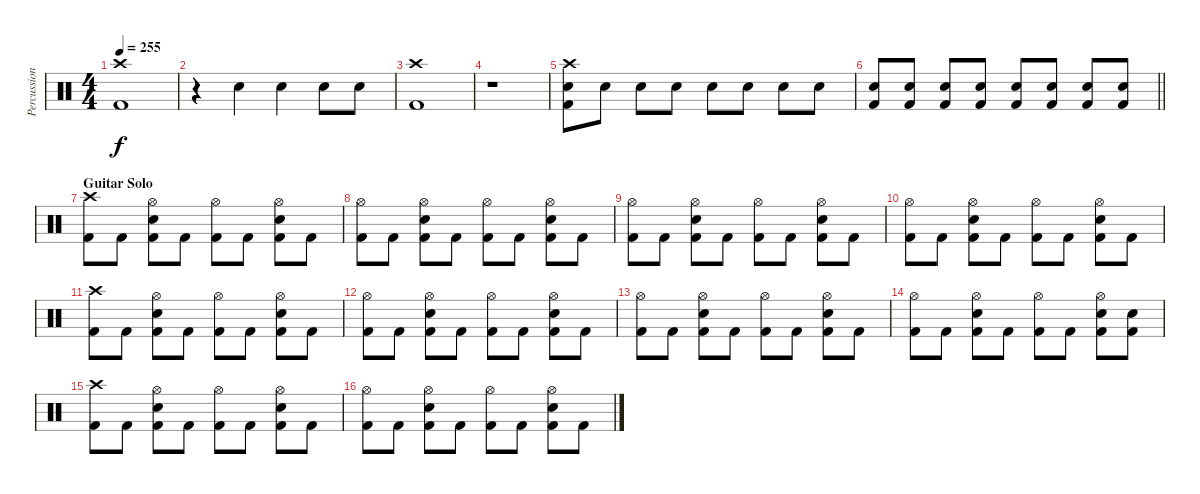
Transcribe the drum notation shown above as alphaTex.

\track ("Percussion" "Percussion") {instrument percussion}
\staff {score}
\articulation defaults
\ts (4 4)
\tempo 255
\clef neutral
\ks c
("Crash high (hit)" "Kick (hit) 2").1{dy f} |
r.4 "Snare (hit) 2".4 "Snare (hit) 2".4 "Snare (hit) 2".8 "Snare (hit) 2".8 |
("Crash high (hit)" "Kick (hit) 2").1 |
r.1 |
("Crash high (hit)" "Snare (hit) 2" "Kick (hit) 2").8 "Snare (hit) 2".8 "Snare (hit) 2".8 "Snare (hit) 2".8 "Snare (hit) 2".8 "Snare (hit) 2".8 "Snare (hit) 2".8 "Snare (hit) 2".8 |
\barLineRight lightlight
("Snare (hit) 2" "Kick (hit) 2").8 ("Snare (hit) 2" "Kick (hit) 2").8 ("Snare (hit) 2" "Kick (hit) 2").8 ("Snare (hit) 2" "Kick (hit) 2").8 ("Snare (hit) 2" "Kick (hit) 2").8 ("Snare (hit) 2" "Kick (hit) 2").8 ("Snare (hit) 2" "Kick (hit) 2").8 ("Snare (hit) 2" "Kick (hit) 2").8 |
\section ("" "Guitar Solo")
("Crash high (hit)" "Kick (hit) 2").8 "Kick (hit) 2".8 ("Hi-Hat (open)" "Snare (hit) 2" "Kick (hit) 2").8 "Kick (hit) 2".8 ("Hi-Hat (open)" "Kick (hit) 2").8 "Kick (hit) 2".8 ("Hi-Hat (open)" "Snare (hit) 2" "Kick (hit) 2").8 "Kick (hit) 2".8 |
("Hi-Hat (open)" "Kick (hit) 2").8 "Kick (hit) 2".8 ("Hi-Hat (open)" "Snare (hit) 2" "Kick (hit) 2").8 "Kick (hit) 2".8 ("Hi-Hat (open)" "Kick (hit) 2").8 "Kick (hit) 2".8 ("Hi-Hat (open)" "Snare (hit) 2" "Kick (hit) 2").8 "Kick (hit) 2".8 |
("Hi-Hat (open)" "Kick (hit) 2").8 "Kick (hit) 2".8 ("Hi-Hat (open)" "Snare (hit) 2" "Kick (hit) 2").8 "Kick (hit) 2".8 ("Hi-Hat (open)" "Kick (hit) 2").8 "Kick (hit) 2".8 ("Hi-Hat (open)" "Snare (hit) 2" "Kick (hit) 2").8 "Kick (hit) 2".8 |
("Hi-Hat (open)" "Kick (hit) 2").8 "Kick (hit) 2".8 ("Hi-Hat (open)" "Snare (hit) 2" "Kick (hit) 2").8 "Kick (hit) 2".8 ("Hi-Hat (open)" "Kick (hit) 2").8 "Kick (hit) 2".8 ("Hi-Hat (open)" "Snare (hit) 2" "Kick (hit) 2").8 "Kick (hit) 2".8 |
("Crash high (hit)" "Kick (hit) 2").8 "Kick (hit) 2".8 ("Hi-Hat (open)" "Snare (hit) 2" "Kick (hit) 2").8 "Kick (hit) 2".8 ("Hi-Hat (open)" "Kick (hit) 2").8 "Kick (hit) 2".8 ("Hi-Hat (open)" "Snare (hit) 2" "Kick (hit) 2").8 "Kick (hit) 2".8 |
("Hi-Hat (open)" "Kick (hit) 2").8 "Kick (hit) 2".8 ("Hi-Hat (open)" "Snare (hit) 2" "Kick (hit) 2").8 "Kick (hit) 2".8 ("Hi-Hat (open)" "Kick (hit) 2").8 "Kick (hit) 2".8 ("Hi-Hat (open)" "Snare (hit) 2" "Kick (hit) 2").8 "Kick (hit) 2".8 |
("Hi-Hat (open)" "Kick (hit) 2").8 "Kick (hit) 2".8 ("Hi-Hat (open)" "Snare (hit) 2" "Kick (hit) 2").8 "Kick (hit) 2".8 ("Hi-Hat (open)" "Kick (hit) 2").8 "Kick (hit) 2".8 ("Hi-Hat (open)" "Snare (hit) 2" "Kick (hit) 2").8 "Kick (hit) 2".8 |
("Hi-Hat (open)" "Kick (hit) 2").8 "Kick (hit) 2".8 ("Hi-Hat (open)" "Snare (hit) 2" "Kick (hit) 2").8 "Kick (hit) 2".8 ("Hi-Hat (open)" "Kick (hit) 2").8 "Kick (hit) 2".8 ("Hi-Hat (open)" "Snare (hit) 2" "Kick (hit) 2").8 ("Snare (hit) 2" "Kick (hit) 2").8 |
("Crash high (hit)" "Kick (hit) 2").8 "Kick (hit) 2".8 ("Hi-Hat (open)" "Snare (hit) 2" "Kick (hit) 2").8 "Kick (hit) 2".8 ("Hi-Hat (open)" "Kick (hit) 2").8 "Kick (hit) 2".8 ("Hi-Hat (open)" "Snare (hit) 2" "Kick (hit) 2").8 "Kick (hit) 2".8 |
("Hi-Hat (open)" "Kick (hit) 2").8 "Kick (hit) 2".8 ("Hi-Hat (open)" "Snare (hit) 2" "Kick (hit) 2").8 "Kick (hit) 2".8 ("Hi-Hat (open)" "Kick (hit) 2").8 "Kick (hit) 2".8 ("Hi-Hat (open)" "Snare (hit) 2" "Kick (hit) 2").8 "Kick (hit) 2".8
